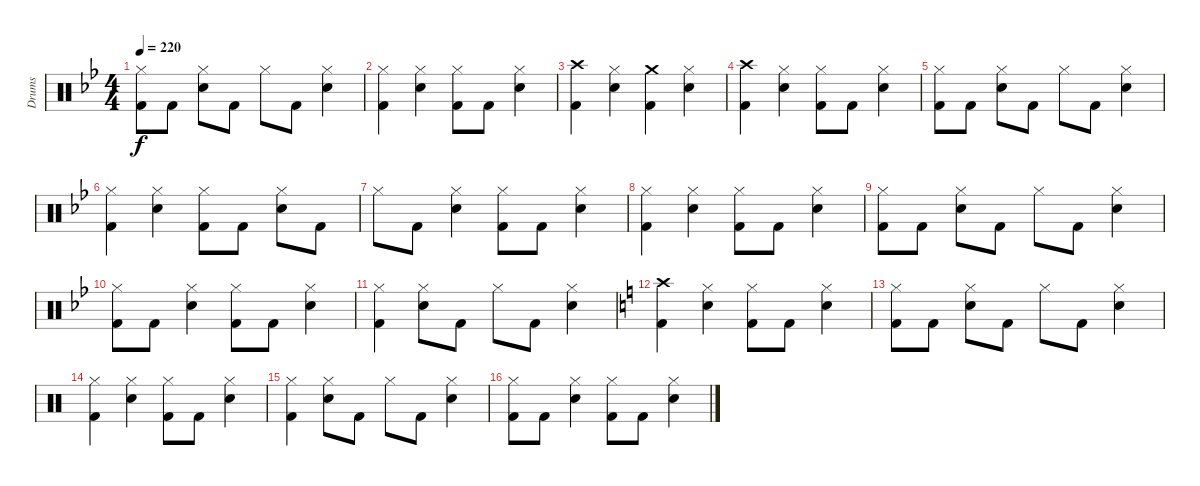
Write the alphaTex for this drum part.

\track ("Drums" "Drums") {instrument percussion}
\staff {score}
\articulation defaults
\ts (4 4)
\tempo 220
\clef neutral
\ks gminor
("Kick (hit) 2" "Hi-Hat (closed)").8{dy f} "Kick (hit) 2".8 ("Snare (hit) 2" "Hi-Hat (closed)").8 "Kick (hit) 2".8 "Hi-Hat (closed)".8 "Kick (hit) 2".8 ("Snare (hit) 2" "Hi-Hat (closed)").4 |
("Kick (hit) 2" "Hi-Hat (closed)").4 ("Snare (hit) 2" "Hi-Hat (closed)").4 ("Kick (hit) 2" "Hi-Hat (closed)").8 "Kick (hit) 2".8 ("Snare (hit) 2" "Hi-Hat (closed)").4 |
("Kick (hit) 2" "Crash high (hit)").4 ("Snare (hit) 2" "Hi-Hat (closed)").4 ("Kick (hit) 2" "Crash medium (hit)").4 ("Snare (hit) 2" "Hi-Hat (closed)").4 |
("Kick (hit) 2" "Crash high (hit)").4 ("Snare (hit) 2" "Hi-Hat (closed)").4 ("Kick (hit) 2" "Hi-Hat (closed)").8 "Kick (hit) 2".8 ("Snare (hit) 2" "Hi-Hat (closed)").4 |
("Kick (hit) 2" "Hi-Hat (closed)").8 "Kick (hit) 2".8 ("Snare (hit) 2" "Hi-Hat (closed)").8 "Kick (hit) 2".8 "Hi-Hat (closed)".8 "Kick (hit) 2".8 ("Snare (hit) 2" "Hi-Hat (closed)").4 |
("Kick (hit) 2" "Hi-Hat (closed)").4 ("Snare (hit) 2" "Hi-Hat (closed)").4 ("Kick (hit) 2" "Hi-Hat (closed)").8 "Kick (hit) 2".8 ("Snare (hit) 2" "Hi-Hat (closed)").8 "Kick (hit) 2".8 |
"Hi-Hat (closed)".8 "Kick (hit) 2".8 ("Snare (hit) 2" "Hi-Hat (closed)").4 ("Kick (hit) 2" "Hi-Hat (closed)").8 "Kick (hit) 2".8 ("Snare (hit) 2" "Hi-Hat (closed)").4 |
("Kick (hit) 2" "Hi-Hat (closed)").4 ("Snare (hit) 2" "Hi-Hat (closed)").4 ("Kick (hit) 2" "Hi-Hat (closed)").8 "Kick (hit) 2".8 ("Snare (hit) 2" "Hi-Hat (closed)").4 |
("Kick (hit) 2" "Hi-Hat (closed)").8 "Kick (hit) 2".8 ("Snare (hit) 2" "Hi-Hat (closed)").8 "Kick (hit) 2".8 "Hi-Hat (closed)".8 "Kick (hit) 2".8 ("Snare (hit) 2" "Hi-Hat (closed)").4 |
("Kick (hit) 2" "Hi-Hat (closed)").8 "Kick (hit) 2".8 ("Snare (hit) 2" "Hi-Hat (closed)").4 ("Kick (hit) 2" "Hi-Hat (closed)").8 "Kick (hit) 2".8 ("Snare (hit) 2" "Hi-Hat (closed)").4 |
("Kick (hit) 2" "Hi-Hat (closed)").4 ("Snare (hit) 2" "Hi-Hat (closed)").8 "Kick (hit) 2".8 "Hi-Hat (closed)".8 "Kick (hit) 2".8 ("Snare (hit) 2" "Hi-Hat (closed)").4 |
\ks aminor
("Kick (hit) 2" "Crash high (hit)").4 ("Snare (hit) 2" "Hi-Hat (closed)").4 ("Kick (hit) 2" "Hi-Hat (closed)").8 "Kick (hit) 2".8 ("Snare (hit) 2" "Hi-Hat (closed)").4 |
("Kick (hit) 2" "Hi-Hat (closed)").8 "Kick (hit) 2".8 ("Snare (hit) 2" "Hi-Hat (closed)").8 "Kick (hit) 2".8 "Hi-Hat (closed)".8 "Kick (hit) 2".8 ("Snare (hit) 2" "Hi-Hat (closed)").4 |
("Kick (hit) 2" "Hi-Hat (closed)").4 ("Snare (hit) 2" "Hi-Hat (closed)").4 ("Kick (hit) 2" "Hi-Hat (closed)").8 "Kick (hit) 2".8 ("Snare (hit) 2" "Hi-Hat (closed)").4 |
("Kick (hit) 2" "Hi-Hat (closed)").4 ("Snare (hit) 2" "Hi-Hat (closed)").8 "Kick (hit) 2".8 "Hi-Hat (closed)".8 "Kick (hit) 2".8 ("Snare (hit) 2" "Hi-Hat (closed)").4 |
("Kick (hit) 2" "Hi-Hat (closed)").8 "Kick (hit) 2".8 ("Snare (hit) 2" "Hi-Hat (closed)").4 ("Kick (hit) 2" "Hi-Hat (closed)").8 "Kick (hit) 2".8 ("Snare (hit) 2" "Hi-Hat (closed)").4
